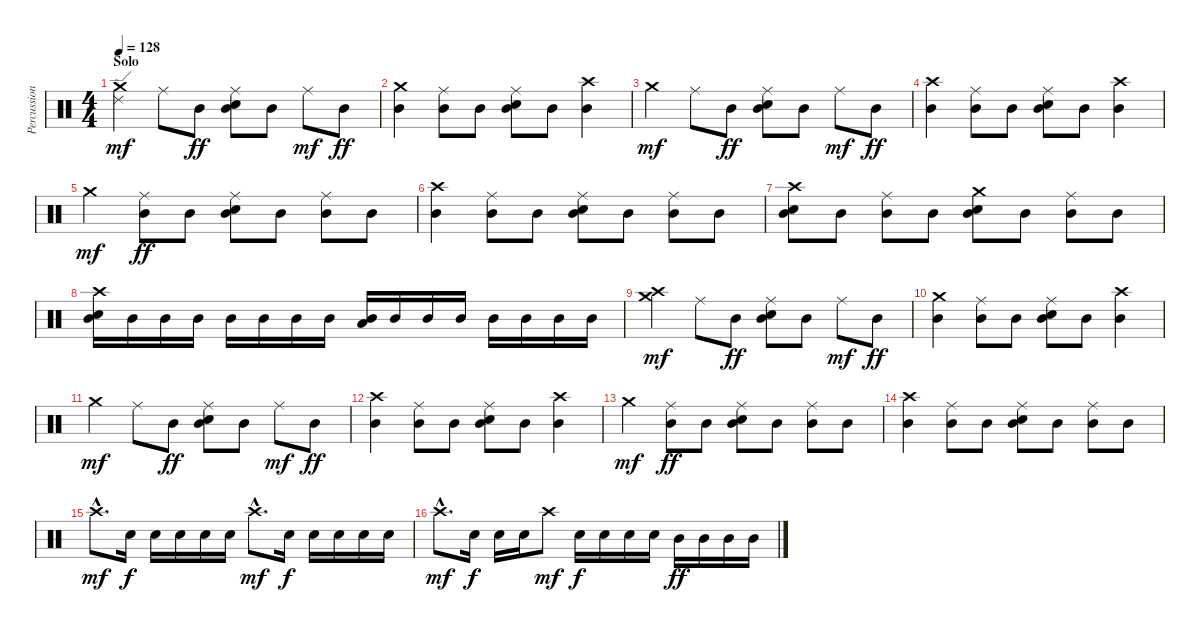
\track ("Percussion" "Percussion") {instrument percussion}
\staff {score}
\articulation defaults
\ts (4 4)
\section ("" "Solo")
\tempo 128
\clef neutral
\ks c
("Crash medium (hit)" "Ride (edge) 2").4{dy mf} "Ride (middle)".8 "Mid Tom (hit)".8{dy ff} ("Ride (middle)" "Electric Snare (hit)" "Mid Tom (hit)").8 "Mid Tom (hit)".8 "Ride (middle)".8{dy mf} "Mid Tom (hit)".8{dy ff} |
("Crash medium (hit)" "Mid Tom (hit)").4 ("Ride (middle)" "Mid Tom (hit)").8 "Mid Tom (hit)".8 ("Ride (middle)" "Electric Snare (hit)" "Mid Tom (hit)").8 "Mid Tom (hit)".8 ("Crash high (hit)" "Mid Tom (hit)").4 |
"Crash medium (hit)".4{dy mf} "Ride (middle)".8 "Mid Tom (hit)".8{dy ff} ("Ride (middle)" "Electric Snare (hit)" "Mid Tom (hit)").8 "Mid Tom (hit)".8 "Ride (middle)".8{dy mf} "Mid Tom (hit)".8{dy ff} |
("Crash high (hit)" "Mid Tom (hit)").4 ("Ride (middle)" "Mid Tom (hit)").8 "Mid Tom (hit)".8 ("Ride (middle)" "Electric Snare (hit)" "Mid Tom (hit)").8 "Mid Tom (hit)".8 ("Crash high (hit)" "Mid Tom (hit)").4 |
"Crash medium (hit)".4{dy mf} ("Ride (middle)" "Mid Tom (hit)").8{dy ff} "Mid Tom (hit)".8 ("Ride (middle)" "Electric Snare (hit)" "Mid Tom (hit)").8 "Mid Tom (hit)".8 ("Ride (middle)" "Mid Tom (hit)").8 "Mid Tom (hit)".8 |
("Crash high (hit)" "Mid Tom (hit)").4 ("Ride (middle)" "Mid Tom (hit)").8 "Mid Tom (hit)".8 ("Ride (middle)" "Electric Snare (hit)" "Mid Tom (hit)").8 "Mid Tom (hit)".8 ("Ride (middle)" "Mid Tom (hit)").8 "Mid Tom (hit)".8 |
("Crash high (hit)" "Electric Snare (hit)" "Mid Tom (hit)").8 "Mid Tom (hit)".8 ("Ride (middle)" "Mid Tom (hit)").8 "Mid Tom (hit)".8 ("Crash medium (hit)" "Electric Snare (hit)" "Mid Tom (hit)").8 "Mid Tom (hit)".8 ("Ride (middle)" "Mid Tom (hit)").8 "Mid Tom (hit)".8 |
("Crash high (hit)" "Electric Snare (hit)" "Mid Tom (hit)").16 "Mid Tom (hit)".16 "Mid Tom (hit)".16 "Mid Tom (hit)".16 "Mid Tom (hit)".16 "Mid Tom (hit)".16 "Mid Tom (hit)".16 "Mid Tom (hit)".16 ("Low Floor Tom (hit)" "Mid Tom (hit)").16 "Mid Tom (hit)".16 "Mid Tom (hit)".16 "Mid Tom (hit)".16 "Mid Tom (hit)".16 "Mid Tom (hit)".16 "Mid Tom (hit)".16 "Mid Tom (hit)".16 |
("Crash high (hit)" "Crash medium (hit)").4{dy mf} "Ride (middle)".8 "Mid Tom (hit)".8{dy ff} ("Ride (middle)" "Electric Snare (hit)" "Mid Tom (hit)").8 "Mid Tom (hit)".8 "Ride (middle)".8{dy mf} "Mid Tom (hit)".8{dy ff} |
("Crash medium (hit)" "Mid Tom (hit)").4 ("Ride (middle)" "Mid Tom (hit)").8 "Mid Tom (hit)".8 ("Ride (middle)" "Electric Snare (hit)" "Mid Tom (hit)").8 "Mid Tom (hit)".8 ("Crash high (hit)" "Mid Tom (hit)").4 |
"Crash medium (hit)".4{dy mf} "Ride (middle)".8 "Mid Tom (hit)".8{dy ff} ("Ride (middle)" "Electric Snare (hit)" "Mid Tom (hit)").8 "Mid Tom (hit)".8 "Ride (middle)".8{dy mf} "Mid Tom (hit)".8{dy ff} |
("Crash high (hit)" "Mid Tom (hit)").4 ("Ride (middle)" "Mid Tom (hit)").8 "Mid Tom (hit)".8 ("Ride (middle)" "Electric Snare (hit)" "Mid Tom (hit)").8 "Mid Tom (hit)".8 ("Crash high (hit)" "Mid Tom (hit)").4 |
"Crash medium (hit)".4{dy mf} ("Ride (middle)" "Mid Tom (hit)").8{dy ff} "Mid Tom (hit)".8 ("Ride (middle)" "Electric Snare (hit)" "Mid Tom (hit)").8 "Mid Tom (hit)".8 ("Ride (middle)" "Mid Tom (hit)").8 "Mid Tom (hit)".8 |
("Crash high (hit)" "Mid Tom (hit)").4 ("Ride (middle)" "Mid Tom (hit)").8 "Mid Tom (hit)".8 ("Ride (middle)" "Electric Snare (hit)" "Mid Tom (hit)").8 "Mid Tom (hit)".8 ("Ride (middle)" "Mid Tom (hit)").8 "Mid Tom (hit)".8 |
"Crash high (hit)"{hac}.8{d dy mf} "Snare (hit) 2".16{dy f} "Snare (hit) 2".16 "Snare (hit) 2".16 "Snare (hit) 2".16 "Snare (hit) 2".16 "Crash high (hit)"{hac}.8{d dy mf} "Snare (hit) 2".16{dy f} "Snare (hit) 2".16 "Snare (hit) 2".16 "Snare (hit) 2".16 "Snare (hit) 2".16 |
"Crash high (hit)"{hac}.8{d dy mf} "Snare (hit) 2".16{dy f} "Snare (hit) 2".16 "Snare (hit) 2".16 "Crash high (hit)".8{dy mf} "Snare (hit) 2".16{dy f} "Snare (hit) 2".16 "Snare (hit) 2".16 "Snare (hit) 2".16 "Mid Tom (hit)".16{dy ff} "Mid Tom (hit)".16 "Mid Tom (hit)".16 "Mid Tom (hit)".16
